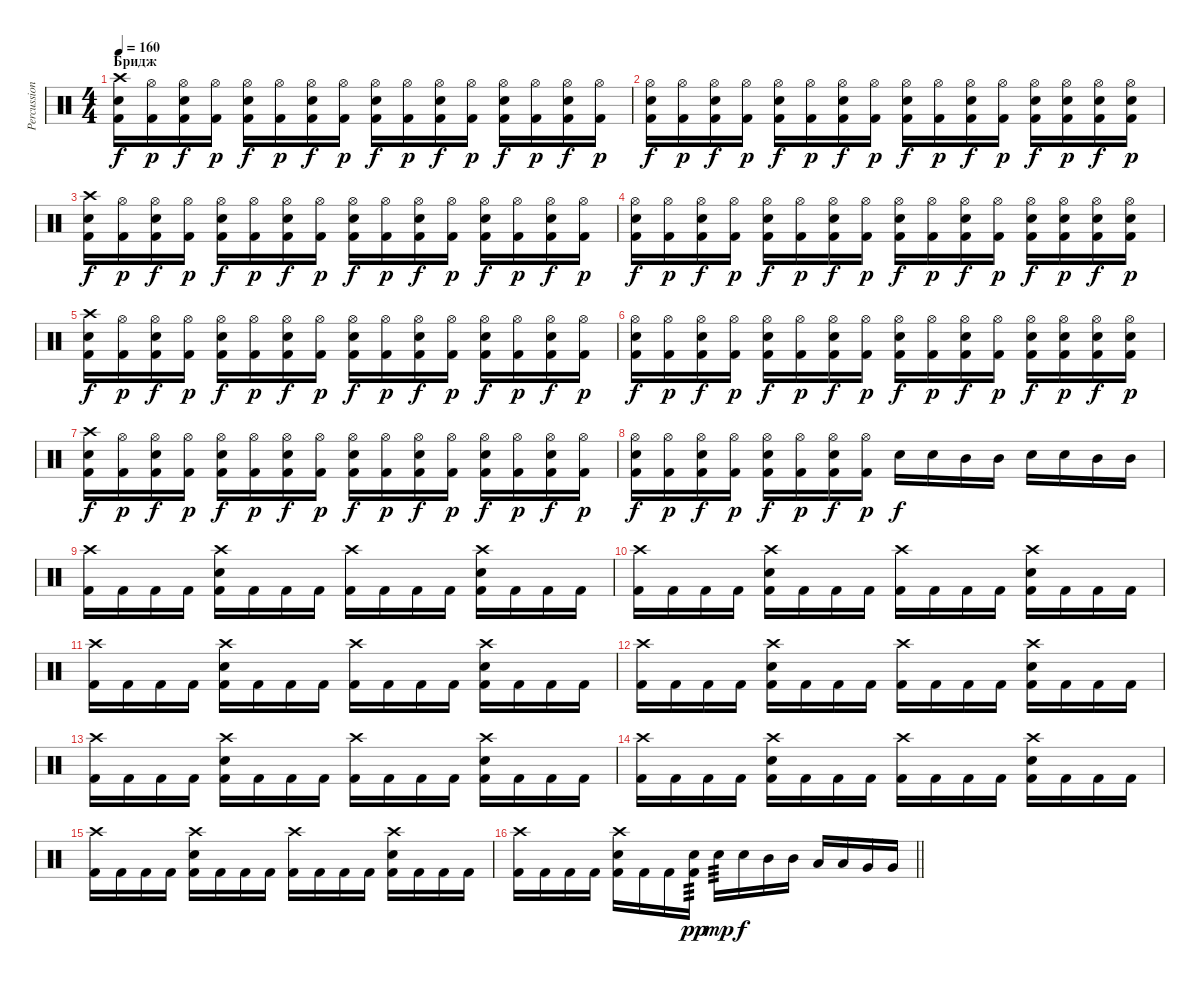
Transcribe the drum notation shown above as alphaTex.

\track ("Percussioni" "Percussion") {instrument percussion}
\staff {score}
\articulation defaults
\ts (4 4)
\section ("" "Бридж")
\tempo 160
\clef neutral
\ks c
("Crash high (hit)" "Electric Snare (hit)" "Kick (hit) 2").16{dy f} ("Hi-Hat (open)" "Kick (hit) 2").16{dy p} ("Hi-Hat (open)" "Electric Snare (hit)" "Kick (hit) 2").16{dy f} ("Hi-Hat (open)" "Kick (hit) 2").16{dy p} ("Hi-Hat (open)" "Electric Snare (hit)" "Kick (hit) 2").16{dy f} ("Hi-Hat (open)" "Kick (hit) 2").16{dy p} ("Hi-Hat (open)" "Electric Snare (hit)" "Kick (hit) 2").16{dy f} ("Hi-Hat (open)" "Kick (hit) 2").16{dy p} ("Hi-Hat (open)" "Electric Snare (hit)" "Kick (hit) 2").16{dy f} ("Hi-Hat (open)" "Kick (hit) 2").16{dy p} ("Hi-Hat (open)" "Electric Snare (hit)" "Kick (hit) 2").16{dy f} ("Hi-Hat (open)" "Kick (hit) 2").16{dy p} ("Hi-Hat (open)" "Electric Snare (hit)" "Kick (hit) 2").16{dy f} ("Hi-Hat (open)" "Kick (hit) 2").16{dy p} ("Hi-Hat (open)" "Electric Snare (hit)" "Kick (hit) 2").16{dy f} ("Hi-Hat (open)" "Kick (hit) 2").16{dy p} |
("Hi-Hat (open)" "Electric Snare (hit)" "Kick (hit) 2").16{dy f} ("Hi-Hat (open)" "Kick (hit) 2").16{dy p} ("Hi-Hat (open)" "Electric Snare (hit)" "Kick (hit) 2").16{dy f} ("Hi-Hat (open)" "Kick (hit) 2").16{dy p} ("Hi-Hat (open)" "Electric Snare (hit)" "Kick (hit) 2").16{dy f} ("Hi-Hat (open)" "Kick (hit) 2").16{dy p} ("Hi-Hat (open)" "Electric Snare (hit)" "Kick (hit) 2").16{dy f} ("Hi-Hat (open)" "Kick (hit) 2").16{dy p} ("Hi-Hat (open)" "Electric Snare (hit)" "Kick (hit) 2").16{dy f} ("Hi-Hat (open)" "Kick (hit) 2").16{dy p} ("Hi-Hat (open)" "Electric Snare (hit)" "Kick (hit) 2").16{dy f} ("Hi-Hat (open)" "Kick (hit) 2").16{dy p} ("Hi-Hat (open)" "Electric Snare (hit)" "Kick (hit) 2").16{dy f} ("Hi-Hat (open)" "Electric Snare (hit)" "Kick (hit) 2").16{dy p} ("Hi-Hat (open)" "Electric Snare (hit)" "Kick (hit) 2").16{dy f} ("Hi-Hat (open)" "Electric Snare (hit)" "Kick (hit) 2").16{dy p} |
("Crash high (hit)" "Electric Snare (hit)" "Kick (hit) 2").16{dy f} ("Hi-Hat (open)" "Kick (hit) 2").16{dy p} ("Hi-Hat (open)" "Electric Snare (hit)" "Kick (hit) 2").16{dy f} ("Hi-Hat (open)" "Kick (hit) 2").16{dy p} ("Hi-Hat (open)" "Electric Snare (hit)" "Kick (hit) 2").16{dy f} ("Hi-Hat (open)" "Kick (hit) 2").16{dy p} ("Hi-Hat (open)" "Electric Snare (hit)" "Kick (hit) 2").16{dy f} ("Hi-Hat (open)" "Kick (hit) 2").16{dy p} ("Hi-Hat (open)" "Electric Snare (hit)" "Kick (hit) 2").16{dy f} ("Hi-Hat (open)" "Kick (hit) 2").16{dy p} ("Hi-Hat (open)" "Electric Snare (hit)" "Kick (hit) 2").16{dy f} ("Hi-Hat (open)" "Kick (hit) 2").16{dy p} ("Hi-Hat (open)" "Electric Snare (hit)" "Kick (hit) 2").16{dy f} ("Hi-Hat (open)" "Kick (hit) 2").16{dy p} ("Hi-Hat (open)" "Electric Snare (hit)" "Kick (hit) 2").16{dy f} ("Hi-Hat (open)" "Kick (hit) 2").16{dy p} |
("Hi-Hat (open)" "Electric Snare (hit)" "Kick (hit) 2").16{dy f} ("Hi-Hat (open)" "Kick (hit) 2").16{dy p} ("Hi-Hat (open)" "Electric Snare (hit)" "Kick (hit) 2").16{dy f} ("Hi-Hat (open)" "Kick (hit) 2").16{dy p} ("Hi-Hat (open)" "Electric Snare (hit)" "Kick (hit) 2").16{dy f} ("Hi-Hat (open)" "Kick (hit) 2").16{dy p} ("Hi-Hat (open)" "Electric Snare (hit)" "Kick (hit) 2").16{dy f} ("Hi-Hat (open)" "Kick (hit) 2").16{dy p} ("Hi-Hat (open)" "Electric Snare (hit)" "Kick (hit) 2").16{dy f} ("Hi-Hat (open)" "Kick (hit) 2").16{dy p} ("Hi-Hat (open)" "Electric Snare (hit)" "Kick (hit) 2").16{dy f} ("Hi-Hat (open)" "Kick (hit) 2").16{dy p} ("Hi-Hat (open)" "Electric Snare (hit)" "Kick (hit) 2").16{dy f} ("Hi-Hat (open)" "Electric Snare (hit)" "Kick (hit) 2").16{dy p} ("Hi-Hat (open)" "Electric Snare (hit)" "Kick (hit) 2").16{dy f} ("Hi-Hat (open)" "Electric Snare (hit)" "Kick (hit) 2").16{dy p} |
("Crash high (hit)" "Electric Snare (hit)" "Kick (hit) 2").16{dy f} ("Hi-Hat (open)" "Kick (hit) 2").16{dy p} ("Hi-Hat (open)" "Electric Snare (hit)" "Kick (hit) 2").16{dy f} ("Hi-Hat (open)" "Kick (hit) 2").16{dy p} ("Hi-Hat (open)" "Electric Snare (hit)" "Kick (hit) 2").16{dy f} ("Hi-Hat (open)" "Kick (hit) 2").16{dy p} ("Hi-Hat (open)" "Electric Snare (hit)" "Kick (hit) 2").16{dy f} ("Hi-Hat (open)" "Kick (hit) 2").16{dy p} ("Hi-Hat (open)" "Electric Snare (hit)" "Kick (hit) 2").16{dy f} ("Hi-Hat (open)" "Kick (hit) 2").16{dy p} ("Hi-Hat (open)" "Electric Snare (hit)" "Kick (hit) 2").16{dy f} ("Hi-Hat (open)" "Kick (hit) 2").16{dy p} ("Hi-Hat (open)" "Electric Snare (hit)" "Kick (hit) 2").16{dy f} ("Hi-Hat (open)" "Kick (hit) 2").16{dy p} ("Hi-Hat (open)" "Electric Snare (hit)" "Kick (hit) 2").16{dy f} ("Hi-Hat (open)" "Kick (hit) 2").16{dy p} |
("Hi-Hat (open)" "Electric Snare (hit)" "Kick (hit) 2").16{dy f} ("Hi-Hat (open)" "Kick (hit) 2").16{dy p} ("Hi-Hat (open)" "Electric Snare (hit)" "Kick (hit) 2").16{dy f} ("Hi-Hat (open)" "Kick (hit) 2").16{dy p} ("Hi-Hat (open)" "Electric Snare (hit)" "Kick (hit) 2").16{dy f} ("Hi-Hat (open)" "Kick (hit) 2").16{dy p} ("Hi-Hat (open)" "Electric Snare (hit)" "Kick (hit) 2").16{dy f} ("Hi-Hat (open)" "Kick (hit) 2").16{dy p} ("Hi-Hat (open)" "Electric Snare (hit)" "Kick (hit) 2").16{dy f} ("Hi-Hat (open)" "Kick (hit) 2").16{dy p} ("Hi-Hat (open)" "Electric Snare (hit)" "Kick (hit) 2").16{dy f} ("Hi-Hat (open)" "Kick (hit) 2").16{dy p} ("Hi-Hat (open)" "Electric Snare (hit)" "Kick (hit) 2").16{dy f} ("Hi-Hat (open)" "Electric Snare (hit)" "Kick (hit) 2").16{dy p} ("Hi-Hat (open)" "Electric Snare (hit)" "Kick (hit) 2").16{dy f} ("Hi-Hat (open)" "Electric Snare (hit)" "Kick (hit) 2").16{dy p} |
("Crash high (hit)" "Electric Snare (hit)" "Kick (hit) 2").16{dy f} ("Hi-Hat (open)" "Kick (hit) 2").16{dy p} ("Hi-Hat (open)" "Electric Snare (hit)" "Kick (hit) 2").16{dy f} ("Hi-Hat (open)" "Kick (hit) 2").16{dy p} ("Hi-Hat (open)" "Electric Snare (hit)" "Kick (hit) 2").16{dy f} ("Hi-Hat (open)" "Kick (hit) 2").16{dy p} ("Hi-Hat (open)" "Electric Snare (hit)" "Kick (hit) 2").16{dy f} ("Hi-Hat (open)" "Kick (hit) 2").16{dy p} ("Hi-Hat (open)" "Electric Snare (hit)" "Kick (hit) 2").16{dy f} ("Hi-Hat (open)" "Kick (hit) 2").16{dy p} ("Hi-Hat (open)" "Electric Snare (hit)" "Kick (hit) 2").16{dy f} ("Hi-Hat (open)" "Kick (hit) 2").16{dy p} ("Hi-Hat (open)" "Electric Snare (hit)" "Kick (hit) 2").16{dy f} ("Hi-Hat (open)" "Kick (hit) 2").16{dy p} ("Hi-Hat (open)" "Electric Snare (hit)" "Kick (hit) 2").16{dy f} ("Hi-Hat (open)" "Kick (hit) 2").16{dy p} |
("Hi-Hat (open)" "Electric Snare (hit)" "Kick (hit) 2").16{dy f} ("Hi-Hat (open)" "Kick (hit) 2").16{dy p} ("Hi-Hat (open)" "Electric Snare (hit)" "Kick (hit) 2").16{dy f} ("Hi-Hat (open)" "Kick (hit) 2").16{dy p} ("Hi-Hat (open)" "Electric Snare (hit)" "Kick (hit) 2").16{dy f} ("Hi-Hat (open)" "Kick (hit) 2").16{dy p} ("Hi-Hat (open)" "Electric Snare (hit)" "Kick (hit) 2").16{dy f} ("Hi-Hat (open)" "Kick (hit) 2").16{dy p} "Electric Snare (hit)".16{dy f} "Electric Snare (hit)".16 "Mid Tom (hit)".16 "Mid Tom (hit)".16 "Electric Snare (hit)".16 "Electric Snare (hit)".16 "Mid Tom (hit)".16 "Mid Tom (hit)".16 |
("Crash high (hit)" "Kick (hit) 2").16 "Kick (hit) 2".16 "Kick (hit) 2".16 "Kick (hit) 2".16 ("Crash high (hit)" "Electric Snare (hit)" "Kick (hit) 2").16 "Kick (hit) 2".16 "Kick (hit) 2".16 "Kick (hit) 2".16 ("Crash high (hit)" "Kick (hit) 2").16 "Kick (hit) 2".16 "Kick (hit) 2".16 "Kick (hit) 2".16 ("Crash high (hit)" "Electric Snare (hit)" "Kick (hit) 2").16 "Kick (hit) 2".16 "Kick (hit) 2".16 "Kick (hit) 2".16 |
("Crash high (hit)" "Kick (hit) 2").16 "Kick (hit) 2".16 "Kick (hit) 2".16 "Kick (hit) 2".16 ("Crash high (hit)" "Electric Snare (hit)" "Kick (hit) 2").16 "Kick (hit) 2".16 "Kick (hit) 2".16 "Kick (hit) 2".16 ("Crash high (hit)" "Kick (hit) 2").16 "Kick (hit) 2".16 "Kick (hit) 2".16 "Kick (hit) 2".16 ("Crash high (hit)" "Electric Snare (hit)" "Kick (hit) 2").16 "Kick (hit) 2".16 "Kick (hit) 2".16 "Kick (hit) 2".16 |
("Crash high (hit)" "Kick (hit) 2").16 "Kick (hit) 2".16 "Kick (hit) 2".16 "Kick (hit) 2".16 ("Crash high (hit)" "Electric Snare (hit)" "Kick (hit) 2").16 "Kick (hit) 2".16 "Kick (hit) 2".16 "Kick (hit) 2".16 ("Crash high (hit)" "Kick (hit) 2").16 "Kick (hit) 2".16 "Kick (hit) 2".16 "Kick (hit) 2".16 ("Crash high (hit)" "Electric Snare (hit)" "Kick (hit) 2").16 "Kick (hit) 2".16 "Kick (hit) 2".16 "Kick (hit) 2".16 |
("Crash high (hit)" "Kick (hit) 2").16 "Kick (hit) 2".16 "Kick (hit) 2".16 "Kick (hit) 2".16 ("Crash high (hit)" "Electric Snare (hit)" "Kick (hit) 2").16 "Kick (hit) 2".16 "Kick (hit) 2".16 "Kick (hit) 2".16 ("Crash high (hit)" "Kick (hit) 2").16 "Kick (hit) 2".16 "Kick (hit) 2".16 "Kick (hit) 2".16 ("Crash high (hit)" "Electric Snare (hit)" "Kick (hit) 2").16 "Kick (hit) 2".16 "Kick (hit) 2".16 "Kick (hit) 2".16 |
("Crash high (hit)" "Kick (hit) 2").16 "Kick (hit) 2".16 "Kick (hit) 2".16 "Kick (hit) 2".16 ("Crash high (hit)" "Electric Snare (hit)" "Kick (hit) 2").16 "Kick (hit) 2".16 "Kick (hit) 2".16 "Kick (hit) 2".16 ("Crash high (hit)" "Kick (hit) 2").16 "Kick (hit) 2".16 "Kick (hit) 2".16 "Kick (hit) 2".16 ("Crash high (hit)" "Electric Snare (hit)" "Kick (hit) 2").16 "Kick (hit) 2".16 "Kick (hit) 2".16 "Kick (hit) 2".16 |
("Crash high (hit)" "Kick (hit) 2").16 "Kick (hit) 2".16 "Kick (hit) 2".16 "Kick (hit) 2".16 ("Crash high (hit)" "Electric Snare (hit)" "Kick (hit) 2").16 "Kick (hit) 2".16 "Kick (hit) 2".16 "Kick (hit) 2".16 ("Crash high (hit)" "Kick (hit) 2").16 "Kick (hit) 2".16 "Kick (hit) 2".16 "Kick (hit) 2".16 ("Crash high (hit)" "Electric Snare (hit)" "Kick (hit) 2").16 "Kick (hit) 2".16 "Kick (hit) 2".16 "Kick (hit) 2".16 |
("Crash high (hit)" "Kick (hit) 2").16 "Kick (hit) 2".16 "Kick (hit) 2".16 "Kick (hit) 2".16 ("Crash high (hit)" "Electric Snare (hit)" "Kick (hit) 2").16 "Kick (hit) 2".16 "Kick (hit) 2".16 "Kick (hit) 2".16 ("Crash high (hit)" "Kick (hit) 2").16 "Kick (hit) 2".16 "Kick (hit) 2".16 "Kick (hit) 2".16 ("Crash high (hit)" "Electric Snare (hit)" "Kick (hit) 2").16 "Kick (hit) 2".16 "Kick (hit) 2".16 "Kick (hit) 2".16 |
\barLineRight lightlight
("Crash high (hit)" "Kick (hit) 2").16 "Kick (hit) 2".16 "Kick (hit) 2".16 "Kick (hit) 2".16 ("Crash high (hit)" "Electric Snare (hit)" "Kick (hit) 2").16 "Kick (hit) 2".16 "Kick (hit) 2".16 ("Electric Snare (hit)" "Kick (hit) 2").16{tp 3 dy pp} "Electric Snare (hit)".16{tp 3 dy mp} "Electric Snare (hit)".16{dy f} "Mid Tom (hit)".16 "Mid Tom (hit)".16 "Low Tom (hit)".16 "Low Tom (hit)".16 "Very Low Tom (hit)".16 "Very Low Tom (hit)".16
